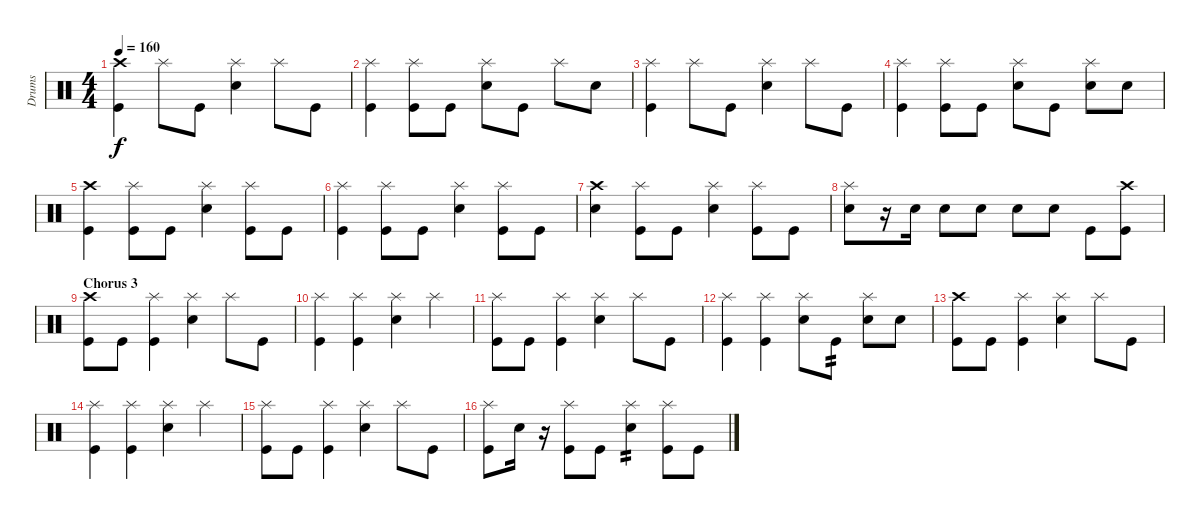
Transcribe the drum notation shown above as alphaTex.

\track ("Drums" "Drums") {instrument percussion}
\staff {score}
\articulation defaults
\ts (4 4)
\tempo 160
\clef neutral
\ks c
("Crash high (hit)" "Kick (hit)").4{dy f} "Splash (hit)".8 "Kick (hit)".8 ("Splash (hit)" "Snare (hit) 2").4 "Splash (hit)".8 "Kick (hit)".8 |
("Splash (hit)" "Kick (hit)").4 ("Splash (hit)" "Kick (hit)").8 "Kick (hit)".8 ("Splash (hit)" "Snare (hit) 2").8 "Kick (hit)".8 "Splash (hit)".8 "Snare (hit) 2".8 |
("Splash (hit)" "Kick (hit)").4 "Splash (hit)".8 "Kick (hit)".8 ("Splash (hit)" "Snare (hit) 2").4 "Splash (hit)".8 "Kick (hit)".8 |
("Splash (hit)" "Kick (hit)").4 ("Splash (hit)" "Kick (hit)").8 "Kick (hit)".8 ("Splash (hit)" "Snare (hit) 2").8 "Kick (hit)".8 ("Splash (hit)" "Snare (hit) 2").8 "Snare (hit) 2".8 |
("Crash high (hit)" "Kick (hit)").4 ("Splash (hit)" "Kick (hit)").8 "Kick (hit)".8 ("Splash (hit)" "Snare (hit) 2").4 ("Splash (hit)" "Kick (hit)").8 "Kick (hit)".8 |
("Splash (hit)" "Kick (hit)").4 ("Splash (hit)" "Kick (hit)").8 "Kick (hit)".8 ("Splash (hit)" "Snare (hit) 2").4 ("Splash (hit)" "Kick (hit)").8 "Kick (hit)".8 |
("Crash high (hit)" "Snare (hit) 2").4 ("Splash (hit)" "Kick (hit)").8 "Kick (hit)".8 ("Splash (hit)" "Snare (hit) 2").4 ("Splash (hit)" "Kick (hit)").8 "Kick (hit)".8 |
("Splash (hit)" "Snare (hit) 2").8 r.16 "Snare (hit) 2".16 "Snare (hit) 2".8 "Snare (hit) 2".8 "Snare (hit) 2".8 "Snare (hit) 2".8 "Kick (hit)".8 ("Crash high (hit)" "Kick (hit)").8 |
\section ("" "Chorus 3")
("Crash high (hit)" "Kick (hit)").8 "Kick (hit)".8 ("Splash (hit)" "Kick (hit)").4 ("Splash (hit)" "Snare (hit) 2").4 "Splash (hit)".8 "Kick (hit)".8 |
("Splash (hit)" "Kick (hit)").4 ("Splash (hit)" "Kick (hit)").4 ("Splash (hit)" "Snare (hit) 2").4 "Splash (hit)".4 |
("Splash (hit)" "Kick (hit)").8 "Kick (hit)".8 ("Splash (hit)" "Kick (hit)").4 ("Splash (hit)" "Snare (hit) 2").4 "Splash (hit)".8 "Kick (hit)".8 |
("Splash (hit)" "Kick (hit)").4 ("Splash (hit)" "Kick (hit)").4 ("Splash (hit)" "Snare (hit) 2").8 "Kick (hit)".8{tp 2} ("Splash (hit)" "Snare (hit) 2").8 "Snare (hit) 2".8 |
("Crash high (hit)" "Kick (hit)").8 "Kick (hit)".8 ("Splash (hit)" "Kick (hit)").4 ("Splash (hit)" "Snare (hit) 2").4 "Splash (hit)".8 "Kick (hit)".8 |
("Splash (hit)" "Kick (hit)").4 ("Splash (hit)" "Kick (hit)").4 ("Splash (hit)" "Snare (hit) 2").4 "Splash (hit)".4 |
("Splash (hit)" "Kick (hit)").8 "Kick (hit)".8 ("Splash (hit)" "Kick (hit)").4 ("Splash (hit)" "Snare (hit) 2").4 "Splash (hit)".8 "Kick (hit)".8 |
("Splash (hit)" "Kick (hit)").8 "Snare (hit) 2".16 r.16 ("Splash (hit)" "Kick (hit)").8 "Kick (hit)".8 ("Splash (hit)" "Snare (hit) 2").4{tp 2} ("Splash (hit)" "Kick (hit)").8 "Kick (hit)".8
